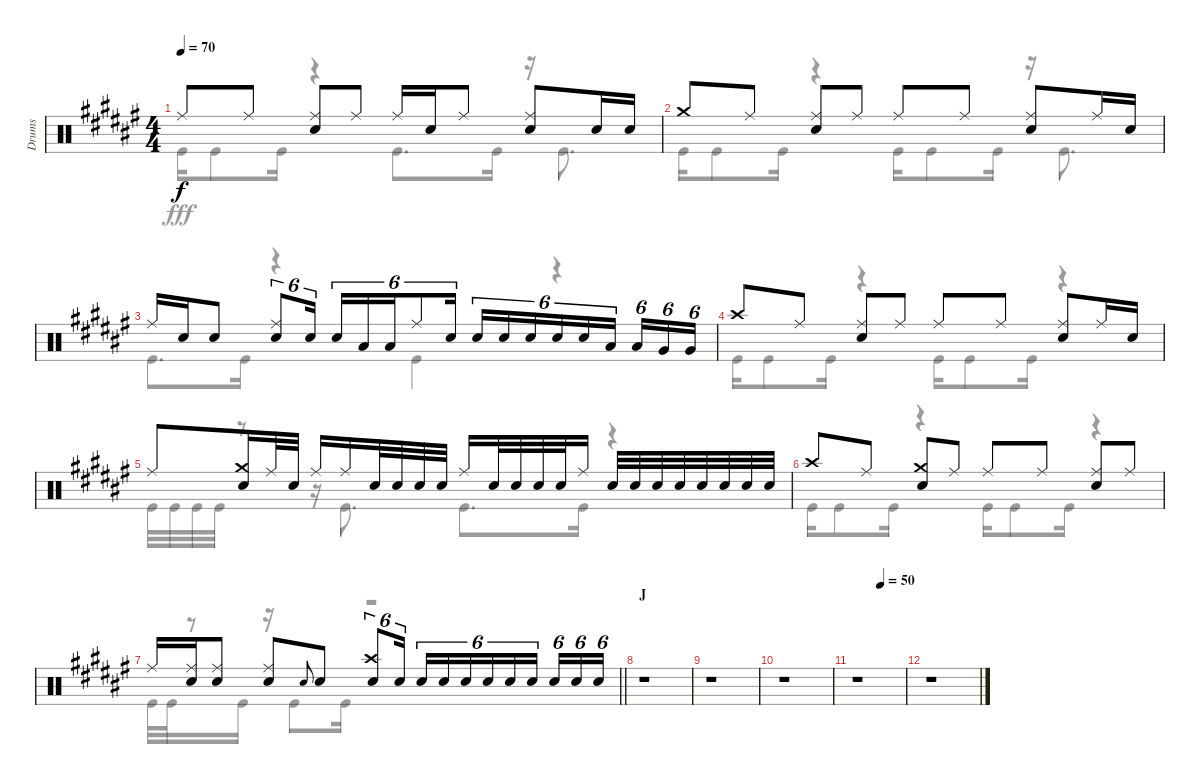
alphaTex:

\track ("Drums" "Drums") {instrument percussion}
\staff {score}
\articulation defaults
\voice
\ts (4 4)
\tempo 70
\clef neutral
\ks f# "Ride (middle)".8{dy f} "Ride (middle)".8
("Ride (middle)" "Snare (hit) 2").8 "Ride (middle)".8 "Ride (middle)".16 "Snare (hit) 2".16 "Ride (middle)".8 ("Ride (middle)" "Snare (hit) 2").8 "Snare (hit) 2".16 "Snare (hit) 2".16 |
"Crash medium (hit)".8 "Ride (middle)".8 ("Ride (middle)" "Snare (hit) 2").8 "Ride (middle)".8 "Ride (middle)".8 "Ride (middle)".8 ("Ride (middle)" "Snare (hit) 2").8 "Ride (middle)".16 "Snare (hit) 2".16 |
"Ride (middle)".16 "Snare (hit) 2".16 "Snare (hit) 2".8 ("Ride (middle)" "Snare (hit) 2").8{tu (6 4)} "Snare (hit) 2".16{tu (6 4) beam splitsecondary} "Snare (hit) 2".16{tu (6 4)} "Low Tom (hit)".16{tu (6 4)} "Low Tom (hit)".16{tu (6 4)} "Ride (middle)".8{tu (6 4)} "Snare (hit) 2".16{tu (6 4) beam splitsecondary} "Snare (hit) 2".16{tu (6 4)} "Snare (hit) 2".16{tu (6 4)} "Snare (hit) 2".16{tu (6 4)} "Snare (hit) 2".16{tu (6 4)} "Snare (hit) 2".16{tu (6 4)} "Low Tom (hit)".16{tu (6 4) beam splitsecondary} "Low Tom (hit)".16{tu (6 4)} "Very Low Tom (hit)".16{tu (6 4)} "Very Low Tom (hit)".16{tu (6 4)} |
"Crash high (hit)".8 "Ride (middle)".8 ("Ride (middle)" "Snare (hit) 2").8 "Ride (middle)".8 "Ride (middle)".8 "Ride (middle)".8 ("Ride (middle)" "Snare (hit) 2").8 "Ride (middle)".16 "Snare (hit) 2".16 |
"Ride (middle)".8 ("Crash medium (hit)" "Snare (hit) 2").16 "Ride (middle)".32 "Snare (hit) 2".32 "Ride (middle)".16 "Ride (middle)".16 "Snare (hit) 2".32 "Snare (hit) 2".32 "Snare (hit) 2".32 "Snare (hit) 2".32 "Ride (middle)".16 "Snare (hit) 2".32 "Snare (hit) 2".32 "Snare (hit) 2".32 "Snare (hit) 2".32 "Ride (middle)".16 "Snare (hit) 2".32 "Snare (hit) 2".32 "Snare (hit) 2".32 "Snare (hit) 2".32 "Snare (hit) 2".32 "Snare (hit) 2".32 "Snare (hit) 2".32 "Snare (hit) 2".32 |
"Crash high (hit)".8 "Ride (middle)".8 ("Crash medium (hit)" "Snare (hit) 2").8 "Ride (middle)".8 "Ride (middle)".8 "Ride (middle)".8 ("Ride (middle)" "Snare (hit) 2").8 "Ride (middle)".8 |
\barLineRight lightlight "Ride (middle)".16
("Ride (middle)" "Snare (hit) 2").16 ("Ride (middle)" "Snare (hit) 2").8 ("Ride (middle)" "Snare (hit) 2").8 "Snare (hit) 2".8{gr onbeat} "Snare (hit) 2".8 ("Crash high (hit)" "Snare (hit) 2").8{tu (6 4)} "Snare (hit) 2".16{tu (6 4) beam splitsecondary} "Snare (hit) 2".16{tu (6 4)} "Snare (hit) 2".16{tu (6 4)} "Snare (hit) 2".16{tu (6 4)} "Snare (hit) 2".16{tu (6 4)} "Snare (hit) 2".16{tu (6 4)} "Snare (hit) 2".16{tu (6 4) beam splitsecondary} "Snare (hit) 2".16{tu (6 4)} "Snare (hit) 2".16{tu (6 4)} "Snare (hit) 2".16{tu (6 4)} |
\section ("" "J")
r.1 |
r.1 |
r.1 |
\tempo (50 0.5)
r.1 |
r.1
\voice
\clef neutral
\ottava regular
\simile none
\ks f# "Kick (hit)".16{dy fff} "Kick (hit)".8 "Kick (hit)".16
r.4 "Kick (hit)".8{d} "Kick (hit)".16 r.16 "Kick (hit)".8{d} |
"Kick (hit)".16 "Kick (hit)".8 "Kick (hit)".16 r.4 "Kick (hit)".16 "Kick (hit)".8 "Kick (hit)".16 r.16 "Kick (hit)".8{d} |
"Kick (hit)".8{d} "Kick (hit)".16 r.4 "Kick (hit)".4 r.4 |
"Kick (hit)".16 "Kick (hit)".8 "Kick (hit)".16 r.4 "Kick (hit)".16 "Kick (hit)".8 "Kick (hit)".16 r.4 |
"Kick (hit)".32 "Kick (hit)".32 "Kick (hit)".32 "Kick (hit)".32 r.8 r.16 "Kick (hit)".8{d} "Kick (hit)".8{d} "Kick (hit)".16 r.4 |
"Kick (hit)".16 "Kick (hit)".8 "Kick (hit)".16 r.4 "Kick (hit)".16 "Kick (hit)".8 "Kick (hit)".16 r.4 |
\barLineRight lightlight "Kick (hit)".32 "Kick (hit)".32
r.8 "Kick (hit)".16 r.16 "Kick (hit)".8 "Kick (hit)".16 r.2 |
r.1 |
r.1 |
r.1 |
r.1 |
r.1
